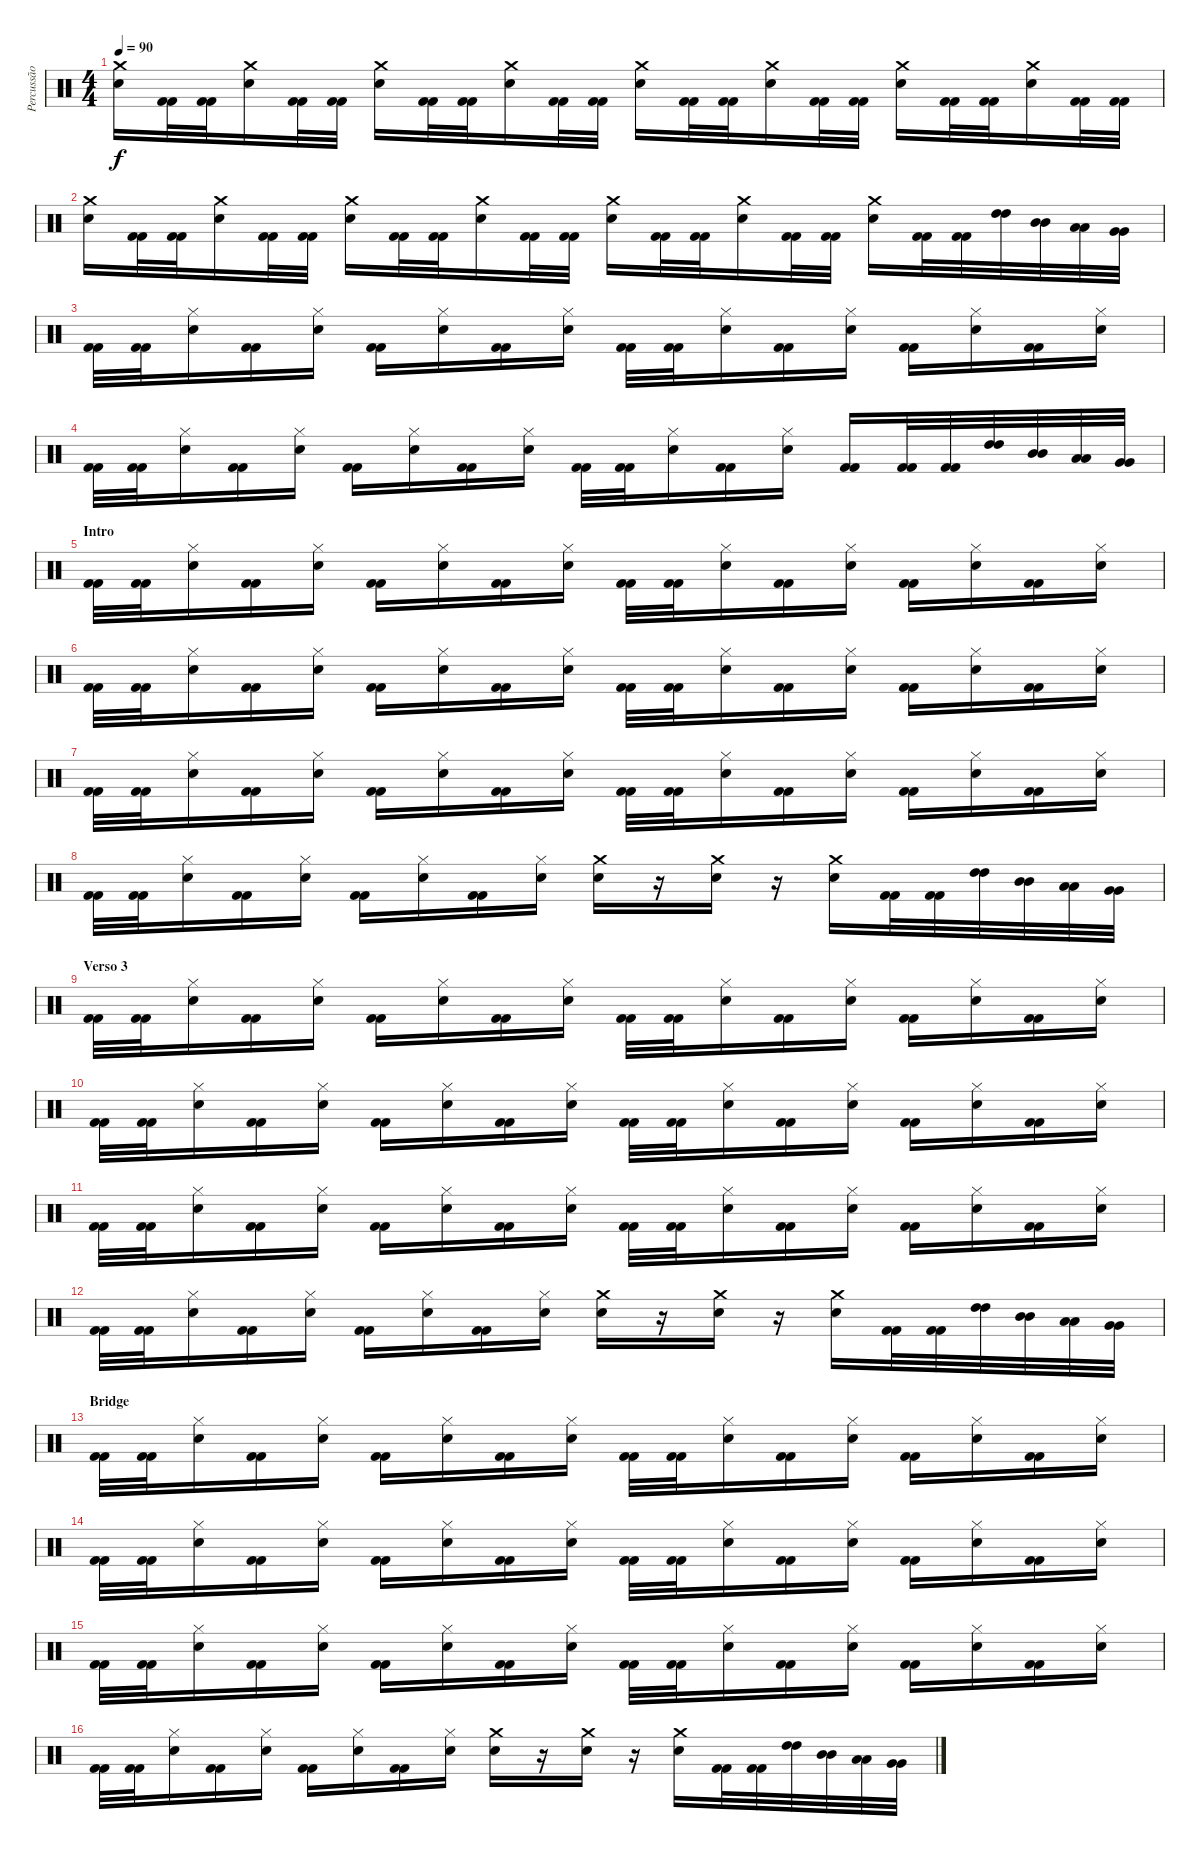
\track ("Percussão" "Percussão") {instrument percussion}
\staff {score}
\articulation defaults
\ts (4 4)
\tempo 90
\clef neutral
\ks c
("Crash medium (hit)" "Snare (hit) 2").16{dy f} ("Kick (hit) 2" "Kick (hit) 2").32 ("Kick (hit) 2" "Kick (hit) 2").32 ("Crash medium (hit)" "Snare (hit) 2").16 ("Kick (hit) 2" "Kick (hit) 2").32 ("Kick (hit) 2" "Kick (hit) 2").32 ("Crash medium (hit)" "Snare (hit) 2").16 ("Kick (hit) 2" "Kick (hit) 2").32 ("Kick (hit) 2" "Kick (hit) 2").32 ("Crash medium (hit)" "Snare (hit) 2").16 ("Kick (hit) 2" "Kick (hit) 2").32 ("Kick (hit) 2" "Kick (hit) 2").32 ("Crash medium (hit)" "Snare (hit) 2").16 ("Kick (hit) 2" "Kick (hit) 2").32 ("Kick (hit) 2" "Kick (hit) 2").32 ("Crash medium (hit)" "Snare (hit) 2").16 ("Kick (hit) 2" "Kick (hit) 2").32 ("Kick (hit) 2" "Kick (hit) 2").32 ("Crash medium (hit)" "Snare (hit) 2").16 ("Kick (hit) 2" "Kick (hit) 2").32 ("Kick (hit) 2" "Kick (hit) 2").32 ("Crash medium (hit)" "Snare (hit) 2").16 ("Kick (hit) 2" "Kick (hit) 2").32 ("Kick (hit) 2" "Kick (hit) 2").32 |
("Crash medium (hit)" "Snare (hit) 2").16 ("Kick (hit) 2" "Kick (hit) 2").32 ("Kick (hit) 2" "Kick (hit) 2").32 ("Crash medium (hit)" "Snare (hit) 2").16 ("Kick (hit) 2" "Kick (hit) 2").32 ("Kick (hit) 2" "Kick (hit) 2").32 ("Crash medium (hit)" "Snare (hit) 2").16 ("Kick (hit) 2" "Kick (hit) 2").32 ("Kick (hit) 2" "Kick (hit) 2").32 ("Crash medium (hit)" "Snare (hit) 2").16 ("Kick (hit) 2" "Kick (hit) 2").32 ("Kick (hit) 2" "Kick (hit) 2").32 ("Crash medium (hit)" "Snare (hit) 2").16 ("Kick (hit) 2" "Kick (hit) 2").32 ("Kick (hit) 2" "Kick (hit) 2").32 ("Crash medium (hit)" "Snare (hit) 2").16 ("Kick (hit) 2" "Kick (hit) 2").32 ("Kick (hit) 2" "Kick (hit) 2").32 ("Crash medium (hit)" "Snare (hit) 2").16 ("Kick (hit) 2" "Kick (hit) 2").32 ("Kick (hit) 2" "Kick (hit) 2").32 ("High Tom (hit)" "High Tom (hit)").32 ("Mid Tom (hit)" "Mid Tom (hit)").32 ("Low Tom (hit)" "Low Tom (hit)").32 ("Very Low Tom (hit)" "Very Low Tom (hit)").32 |
("Kick (hit) 2" "Kick (hit) 2").32 ("Kick (hit) 2" "Kick (hit) 2").32 ("Hi-Hat (closed)" "Snare (hit) 2").16 ("Kick (hit) 2" "Kick (hit) 2").16 ("Hi-Hat (closed)" "Snare (hit) 2").16 ("Kick (hit) 2" "Kick (hit) 2").16 ("Hi-Hat (closed)" "Snare (hit) 2").16 ("Kick (hit) 2" "Kick (hit) 2").16 ("Hi-Hat (closed)" "Snare (hit) 2").16 ("Kick (hit) 2" "Kick (hit) 2").32 ("Kick (hit) 2" "Kick (hit) 2").32 ("Hi-Hat (closed)" "Snare (hit) 2").16 ("Kick (hit) 2" "Kick (hit) 2").16 ("Hi-Hat (closed)" "Snare (hit) 2").16 ("Kick (hit) 2" "Kick (hit) 2").16 ("Hi-Hat (closed)" "Snare (hit) 2").16 ("Kick (hit) 2" "Kick (hit) 2").16 ("Hi-Hat (closed)" "Snare (hit) 2").16 |
("Kick (hit) 2" "Kick (hit) 2").32 ("Kick (hit) 2" "Kick (hit) 2").32 ("Hi-Hat (closed)" "Snare (hit) 2").16 ("Kick (hit) 2" "Kick (hit) 2").16 ("Hi-Hat (closed)" "Snare (hit) 2").16 ("Kick (hit) 2" "Kick (hit) 2").16 ("Hi-Hat (closed)" "Snare (hit) 2").16 ("Kick (hit) 2" "Kick (hit) 2").16 ("Hi-Hat (closed)" "Snare (hit) 2").16 ("Kick (hit) 2" "Kick (hit) 2").32 ("Kick (hit) 2" "Kick (hit) 2").32 ("Hi-Hat (closed)" "Snare (hit) 2").16 ("Kick (hit) 2" "Kick (hit) 2").16 ("Hi-Hat (closed)" "Snare (hit) 2").16 ("Kick (hit) 2" "Kick (hit) 2").16 ("Kick (hit) 2" "Kick (hit) 2").32 ("Kick (hit) 2" "Kick (hit) 2").32 ("High Tom (hit)" "High Tom (hit)").32 ("Mid Tom (hit)" "Mid Tom (hit)").32 ("Low Tom (hit)" "Low Tom (hit)").32 ("Very Low Tom (hit)" "Very Low Tom (hit)").32 |
\section ("" "Intro")
("Kick (hit) 2" "Kick (hit) 2").32 ("Kick (hit) 2" "Kick (hit) 2").32 ("Hi-Hat (closed)" "Snare (hit) 2").16 ("Kick (hit) 2" "Kick (hit) 2").16 ("Hi-Hat (closed)" "Snare (hit) 2").16 ("Kick (hit) 2" "Kick (hit) 2").16 ("Hi-Hat (closed)" "Snare (hit) 2").16 ("Kick (hit) 2" "Kick (hit) 2").16 ("Hi-Hat (closed)" "Snare (hit) 2").16 ("Kick (hit) 2" "Kick (hit) 2").32 ("Kick (hit) 2" "Kick (hit) 2").32 ("Hi-Hat (closed)" "Snare (hit) 2").16 ("Kick (hit) 2" "Kick (hit) 2").16 ("Hi-Hat (closed)" "Snare (hit) 2").16 ("Kick (hit) 2" "Kick (hit) 2").16 ("Hi-Hat (closed)" "Snare (hit) 2").16 ("Kick (hit) 2" "Kick (hit) 2").16 ("Hi-Hat (closed)" "Snare (hit) 2").16 |
("Kick (hit) 2" "Kick (hit) 2").32 ("Kick (hit) 2" "Kick (hit) 2").32 ("Hi-Hat (closed)" "Snare (hit) 2").16 ("Kick (hit) 2" "Kick (hit) 2").16 ("Hi-Hat (closed)" "Snare (hit) 2").16 ("Kick (hit) 2" "Kick (hit) 2").16 ("Hi-Hat (closed)" "Snare (hit) 2").16 ("Kick (hit) 2" "Kick (hit) 2").16 ("Hi-Hat (closed)" "Snare (hit) 2").16 ("Kick (hit) 2" "Kick (hit) 2").32 ("Kick (hit) 2" "Kick (hit) 2").32 ("Hi-Hat (closed)" "Snare (hit) 2").16 ("Kick (hit) 2" "Kick (hit) 2").16 ("Hi-Hat (closed)" "Snare (hit) 2").16 ("Kick (hit) 2" "Kick (hit) 2").16 ("Hi-Hat (closed)" "Snare (hit) 2").16 ("Kick (hit) 2" "Kick (hit) 2").16 ("Hi-Hat (closed)" "Snare (hit) 2").16 |
("Kick (hit) 2" "Kick (hit) 2").32 ("Kick (hit) 2" "Kick (hit) 2").32 ("Hi-Hat (closed)" "Snare (hit) 2").16 ("Kick (hit) 2" "Kick (hit) 2").16 ("Hi-Hat (closed)" "Snare (hit) 2").16 ("Kick (hit) 2" "Kick (hit) 2").16 ("Hi-Hat (closed)" "Snare (hit) 2").16 ("Kick (hit) 2" "Kick (hit) 2").16 ("Hi-Hat (closed)" "Snare (hit) 2").16 ("Kick (hit) 2" "Kick (hit) 2").32 ("Kick (hit) 2" "Kick (hit) 2").32 ("Hi-Hat (closed)" "Snare (hit) 2").16 ("Kick (hit) 2" "Kick (hit) 2").16 ("Hi-Hat (closed)" "Snare (hit) 2").16 ("Kick (hit) 2" "Kick (hit) 2").16 ("Hi-Hat (closed)" "Snare (hit) 2").16 ("Kick (hit) 2" "Kick (hit) 2").16 ("Hi-Hat (closed)" "Snare (hit) 2").16 |
("Kick (hit) 2" "Kick (hit) 2").32 ("Kick (hit) 2" "Kick (hit) 2").32 ("Hi-Hat (closed)" "Snare (hit) 2").16 ("Kick (hit) 2" "Kick (hit) 2").16 ("Hi-Hat (closed)" "Snare (hit) 2").16 ("Kick (hit) 2" "Kick (hit) 2").16 ("Hi-Hat (closed)" "Snare (hit) 2").16 ("Kick (hit) 2" "Kick (hit) 2").16 ("Hi-Hat (closed)" "Snare (hit) 2").16 ("Crash medium (hit)" "Snare (hit) 2").16 r.16 ("Crash medium (hit)" "Snare (hit) 2").16 r.16 ("Crash medium (hit)" "Snare (hit) 2").16 ("Kick (hit) 2" "Kick (hit) 2").32 ("Kick (hit) 2" "Kick (hit) 2").32 ("High Tom (hit)" "High Tom (hit)").32 ("Mid Tom (hit)" "Mid Tom (hit)").32 ("Low Tom (hit)" "Low Tom (hit)").32 ("Very Low Tom (hit)" "Very Low Tom (hit)").32 |
\section ("" "Verso 3")
("Kick (hit) 2" "Kick (hit) 2").32 ("Kick (hit) 2" "Kick (hit) 2").32 ("Hi-Hat (closed)" "Snare (hit) 2").16 ("Kick (hit) 2" "Kick (hit) 2").16 ("Hi-Hat (closed)" "Snare (hit) 2").16 ("Kick (hit) 2" "Kick (hit) 2").16 ("Hi-Hat (closed)" "Snare (hit) 2").16 ("Kick (hit) 2" "Kick (hit) 2").16 ("Hi-Hat (closed)" "Snare (hit) 2").16 ("Kick (hit) 2" "Kick (hit) 2").32 ("Kick (hit) 2" "Kick (hit) 2").32 ("Hi-Hat (closed)" "Snare (hit) 2").16 ("Kick (hit) 2" "Kick (hit) 2").16 ("Hi-Hat (closed)" "Snare (hit) 2").16 ("Kick (hit) 2" "Kick (hit) 2").16 ("Hi-Hat (closed)" "Snare (hit) 2").16 ("Kick (hit) 2" "Kick (hit) 2").16 ("Hi-Hat (closed)" "Snare (hit) 2").16 |
("Kick (hit) 2" "Kick (hit) 2").32 ("Kick (hit) 2" "Kick (hit) 2").32 ("Hi-Hat (closed)" "Snare (hit) 2").16 ("Kick (hit) 2" "Kick (hit) 2").16 ("Hi-Hat (closed)" "Snare (hit) 2").16 ("Kick (hit) 2" "Kick (hit) 2").16 ("Hi-Hat (closed)" "Snare (hit) 2").16 ("Kick (hit) 2" "Kick (hit) 2").16 ("Hi-Hat (closed)" "Snare (hit) 2").16 ("Kick (hit) 2" "Kick (hit) 2").32 ("Kick (hit) 2" "Kick (hit) 2").32 ("Hi-Hat (closed)" "Snare (hit) 2").16 ("Kick (hit) 2" "Kick (hit) 2").16 ("Hi-Hat (closed)" "Snare (hit) 2").16 ("Kick (hit) 2" "Kick (hit) 2").16 ("Hi-Hat (closed)" "Snare (hit) 2").16 ("Kick (hit) 2" "Kick (hit) 2").16 ("Hi-Hat (closed)" "Snare (hit) 2").16 |
("Kick (hit) 2" "Kick (hit) 2").32 ("Kick (hit) 2" "Kick (hit) 2").32 ("Hi-Hat (closed)" "Snare (hit) 2").16 ("Kick (hit) 2" "Kick (hit) 2").16 ("Hi-Hat (closed)" "Snare (hit) 2").16 ("Kick (hit) 2" "Kick (hit) 2").16 ("Hi-Hat (closed)" "Snare (hit) 2").16 ("Kick (hit) 2" "Kick (hit) 2").16 ("Hi-Hat (closed)" "Snare (hit) 2").16 ("Kick (hit) 2" "Kick (hit) 2").32 ("Kick (hit) 2" "Kick (hit) 2").32 ("Hi-Hat (closed)" "Snare (hit) 2").16 ("Kick (hit) 2" "Kick (hit) 2").16 ("Hi-Hat (closed)" "Snare (hit) 2").16 ("Kick (hit) 2" "Kick (hit) 2").16 ("Hi-Hat (closed)" "Snare (hit) 2").16 ("Kick (hit) 2" "Kick (hit) 2").16 ("Hi-Hat (closed)" "Snare (hit) 2").16 |
("Kick (hit) 2" "Kick (hit) 2").32 ("Kick (hit) 2" "Kick (hit) 2").32 ("Hi-Hat (closed)" "Snare (hit) 2").16 ("Kick (hit) 2" "Kick (hit) 2").16 ("Hi-Hat (closed)" "Snare (hit) 2").16 ("Kick (hit) 2" "Kick (hit) 2").16 ("Hi-Hat (closed)" "Snare (hit) 2").16 ("Kick (hit) 2" "Kick (hit) 2").16 ("Hi-Hat (closed)" "Snare (hit) 2").16 ("Crash medium (hit)" "Snare (hit) 2").16 r.16 ("Crash medium (hit)" "Snare (hit) 2").16 r.16 ("Crash medium (hit)" "Snare (hit) 2").16 ("Kick (hit) 2" "Kick (hit) 2").32 ("Kick (hit) 2" "Kick (hit) 2").32 ("High Tom (hit)" "High Tom (hit)").32 ("Mid Tom (hit)" "Mid Tom (hit)").32 ("Low Tom (hit)" "Low Tom (hit)").32 ("Very Low Tom (hit)" "Very Low Tom (hit)").32 |
\section ("" "Bridge")
("Kick (hit) 2" "Kick (hit) 2").32 ("Kick (hit) 2" "Kick (hit) 2").32 ("Hi-Hat (closed)" "Snare (hit) 2").16 ("Kick (hit) 2" "Kick (hit) 2").16 ("Hi-Hat (closed)" "Snare (hit) 2").16 ("Kick (hit) 2" "Kick (hit) 2").16 ("Hi-Hat (closed)" "Snare (hit) 2").16 ("Kick (hit) 2" "Kick (hit) 2").16 ("Hi-Hat (closed)" "Snare (hit) 2").16 ("Kick (hit) 2" "Kick (hit) 2").32 ("Kick (hit) 2" "Kick (hit) 2").32 ("Hi-Hat (closed)" "Snare (hit) 2").16 ("Kick (hit) 2" "Kick (hit) 2").16 ("Hi-Hat (closed)" "Snare (hit) 2").16 ("Kick (hit) 2" "Kick (hit) 2").16 ("Hi-Hat (closed)" "Snare (hit) 2").16 ("Kick (hit) 2" "Kick (hit) 2").16 ("Hi-Hat (closed)" "Snare (hit) 2").16 |
("Kick (hit) 2" "Kick (hit) 2").32 ("Kick (hit) 2" "Kick (hit) 2").32 ("Hi-Hat (closed)" "Snare (hit) 2").16 ("Kick (hit) 2" "Kick (hit) 2").16 ("Hi-Hat (closed)" "Snare (hit) 2").16 ("Kick (hit) 2" "Kick (hit) 2").16 ("Hi-Hat (closed)" "Snare (hit) 2").16 ("Kick (hit) 2" "Kick (hit) 2").16 ("Hi-Hat (closed)" "Snare (hit) 2").16 ("Kick (hit) 2" "Kick (hit) 2").32 ("Kick (hit) 2" "Kick (hit) 2").32 ("Hi-Hat (closed)" "Snare (hit) 2").16 ("Kick (hit) 2" "Kick (hit) 2").16 ("Hi-Hat (closed)" "Snare (hit) 2").16 ("Kick (hit) 2" "Kick (hit) 2").16 ("Hi-Hat (closed)" "Snare (hit) 2").16 ("Kick (hit) 2" "Kick (hit) 2").16 ("Hi-Hat (closed)" "Snare (hit) 2").16 |
("Kick (hit) 2" "Kick (hit) 2").32 ("Kick (hit) 2" "Kick (hit) 2").32 ("Hi-Hat (closed)" "Snare (hit) 2").16 ("Kick (hit) 2" "Kick (hit) 2").16 ("Hi-Hat (closed)" "Snare (hit) 2").16 ("Kick (hit) 2" "Kick (hit) 2").16 ("Hi-Hat (closed)" "Snare (hit) 2").16 ("Kick (hit) 2" "Kick (hit) 2").16 ("Hi-Hat (closed)" "Snare (hit) 2").16 ("Kick (hit) 2" "Kick (hit) 2").32 ("Kick (hit) 2" "Kick (hit) 2").32 ("Hi-Hat (closed)" "Snare (hit) 2").16 ("Kick (hit) 2" "Kick (hit) 2").16 ("Hi-Hat (closed)" "Snare (hit) 2").16 ("Kick (hit) 2" "Kick (hit) 2").16 ("Hi-Hat (closed)" "Snare (hit) 2").16 ("Kick (hit) 2" "Kick (hit) 2").16 ("Hi-Hat (closed)" "Snare (hit) 2").16 |
("Kick (hit) 2" "Kick (hit) 2").32 ("Kick (hit) 2" "Kick (hit) 2").32 ("Hi-Hat (closed)" "Snare (hit) 2").16 ("Kick (hit) 2" "Kick (hit) 2").16 ("Hi-Hat (closed)" "Snare (hit) 2").16 ("Kick (hit) 2" "Kick (hit) 2").16 ("Hi-Hat (closed)" "Snare (hit) 2").16 ("Kick (hit) 2" "Kick (hit) 2").16 ("Hi-Hat (closed)" "Snare (hit) 2").16 ("Crash medium (hit)" "Snare (hit) 2").16 r.16 ("Crash medium (hit)" "Snare (hit) 2").16 r.16 ("Crash medium (hit)" "Snare (hit) 2").16 ("Kick (hit) 2" "Kick (hit) 2").32 ("Kick (hit) 2" "Kick (hit) 2").32 ("High Tom (hit)" "High Tom (hit)").32 ("Mid Tom (hit)" "Mid Tom (hit)").32 ("Low Tom (hit)" "Low Tom (hit)").32 ("Very Low Tom (hit)" "Very Low Tom (hit)").32
